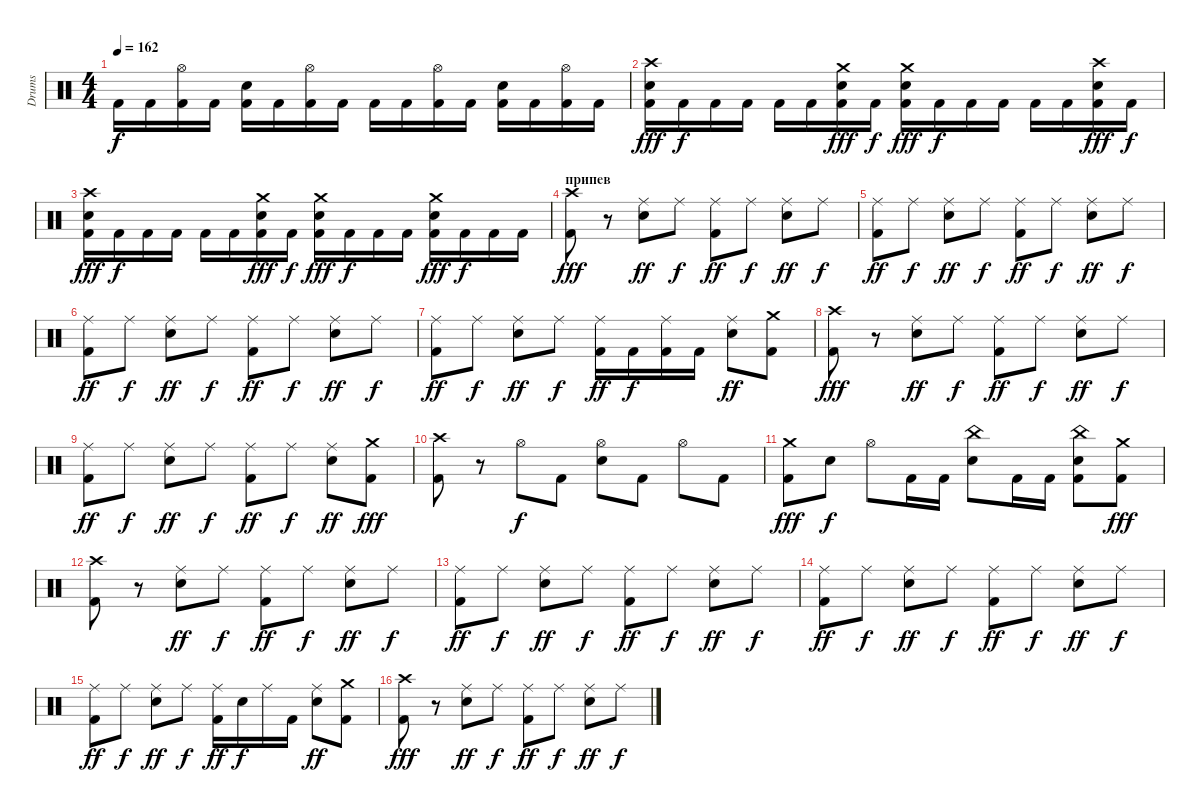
\track ("Drums" "Drums") {instrument percussion}
\staff {score}
\articulation defaults
\ts (4 4)
\tempo 162
\clef neutral
\ks c "Kick (hit) 2".16{dy f} "Kick (hit) 2".16
("Hi-Hat (open)" "Kick (hit) 2").16 "Kick (hit) 2".16 ("Snare (hit) 2" "Kick (hit) 2").16 "Kick (hit) 2".16 ("Hi-Hat (open)" "Kick (hit) 2").16 "Kick (hit) 2".16 "Kick (hit) 2".16 "Kick (hit) 2".16 ("Hi-Hat (open)" "Kick (hit) 2").16 "Kick (hit) 2".16 ("Snare (hit) 2" "Kick (hit) 2").16 "Kick (hit) 2".16 ("Hi-Hat (open)" "Kick (hit) 2").16 "Kick (hit) 2".16 |
("Crash high (hit)" "Snare (hit) 2" "Kick (hit) 2").16{dy fff} "Kick (hit) 2".16{dy f} "Kick (hit) 2".16 "Kick (hit) 2".16 "Kick (hit) 2".16 "Kick (hit) 2".16 ("Crash medium (hit)" "Snare (hit) 2" "Kick (hit) 2").16{dy fff} "Kick (hit) 2".16{dy f} ("Crash medium (hit)" "Snare (hit) 2" "Kick (hit) 2").16{dy fff} "Kick (hit) 2".16{dy f} "Kick (hit) 2".16 "Kick (hit) 2".16 "Kick (hit) 2".16 "Kick (hit) 2".16 ("Crash high (hit)" "Snare (hit) 2" "Kick (hit) 2").16{dy fff} "Kick (hit) 2".16{dy f} |
("Crash high (hit)" "Snare (hit) 2" "Kick (hit) 2").16{dy fff} "Kick (hit) 2".16{dy f} "Kick (hit) 2".16 "Kick (hit) 2".16 "Kick (hit) 2".16 "Kick (hit) 2".16 ("Crash medium (hit)" "Snare (hit) 2" "Kick (hit) 2").16{dy fff} "Kick (hit) 2".16{dy f} ("Crash medium (hit)" "Snare (hit) 2" "Kick (hit) 2").16{dy fff} "Kick (hit) 2".16{dy f} "Kick (hit) 2".16 "Kick (hit) 2".16 ("Crash medium (hit)" "Snare (hit) 2" "Kick (hit) 2").16{dy fff} "Kick (hit) 2".16{dy f} "Kick (hit) 2".16 "Kick (hit) 2".16 |
\section ("" "припев")
("Crash high (hit)" "Kick (hit) 2").8{dy fff} r.8 ("Ride (middle)" "Snare (hit) 2").8{dy ff} "Ride (middle)".8{dy f} ("Ride (middle)" "Kick (hit) 2").8{dy ff} "Ride (middle)".8{dy f} ("Ride (middle)" "Snare (hit) 2").8{dy ff} "Ride (middle)".8{dy f} |
("Ride (middle)" "Kick (hit) 2").8{dy ff} "Ride (middle)".8{dy f} ("Ride (middle)" "Snare (hit) 2").8{dy ff} "Ride (middle)".8{dy f} ("Ride (middle)" "Kick (hit) 2").8{dy ff} "Ride (middle)".8{dy f} ("Ride (middle)" "Snare (hit) 2").8{dy ff} "Ride (middle)".8{dy f} |
("Ride (middle)" "Kick (hit) 2").8{dy ff} "Ride (middle)".8{dy f} ("Ride (middle)" "Snare (hit) 2").8{dy ff} "Ride (middle)".8{dy f} ("Ride (middle)" "Kick (hit) 2").8{dy ff} "Ride (middle)".8{dy f} ("Ride (middle)" "Snare (hit) 2").8{dy ff} "Ride (middle)".8{dy f} |
("Ride (middle)" "Kick (hit) 2").8{dy ff} "Ride (middle)".8{dy f} ("Ride (middle)" "Snare (hit) 2").8{dy ff} "Ride (middle)".8{dy f} ("Ride (middle)" "Kick (hit) 2").16{dy ff} "Kick (hit) 2".16{dy f} ("Ride (middle)" "Kick (hit) 2").16 "Kick (hit) 2".16 ("Ride (middle)" "Snare (hit) 2").8{dy ff} ("Crash medium (hit)" "Kick (hit) 2").8 |
("Crash high (hit)" "Kick (hit) 2").8{dy fff} r.8 ("Ride (middle)" "Snare (hit) 2").8{dy ff} "Ride (middle)".8{dy f} ("Ride (middle)" "Kick (hit) 2").8{dy ff} "Ride (middle)".8{dy f} ("Ride (middle)" "Snare (hit) 2").8{dy ff} "Ride (middle)".8{dy f} |
("Ride (middle)" "Kick (hit) 2").8{dy ff} "Ride (middle)".8{dy f} ("Ride (middle)" "Snare (hit) 2").8{dy ff} "Ride (middle)".8{dy f} ("Ride (middle)" "Kick (hit) 2").8{dy ff} "Ride (middle)".8{dy f} ("Ride (middle)" "Snare (hit) 2").8{dy ff} ("Crash medium (hit)" "Kick (hit) 2").8{dy fff} |
("Crash high (hit)" "Kick (hit) 2").8 r.8 "Hi-Hat (open)".8{dy f} "Kick (hit) 2".8 ("Hi-Hat (open)" "Snare (hit) 2").8 "Kick (hit) 2".8 "Hi-Hat (open)".8 "Kick (hit) 2".8 |
("Crash medium (hit)" "Kick (hit) 2").8{dy fff} "Snare (hit) 2".8{dy f} "Hi-Hat (open)".8 "Kick (hit) 2".16 "Kick (hit) 2".16 ("China (hit)" "Snare (hit) 2").8 "Kick (hit) 2".16 "Kick (hit) 2".16 ("China (hit)" "Snare (hit) 2" "Kick (hit) 2").8 ("Crash medium (hit)" "Kick (hit) 2").8{dy fff} |
("Crash high (hit)" "Kick (hit) 2").8 r.8 ("Ride (middle)" "Snare (hit) 2").8{dy ff} "Ride (middle)".8{dy f} ("Ride (middle)" "Kick (hit) 2").8{dy ff} "Ride (middle)".8{dy f} ("Ride (middle)" "Snare (hit) 2").8{dy ff} "Ride (middle)".8{dy f} |
("Ride (middle)" "Kick (hit) 2").8{dy ff} "Ride (middle)".8{dy f} ("Ride (middle)" "Snare (hit) 2").8{dy ff} "Ride (middle)".8{dy f} ("Ride (middle)" "Kick (hit) 2").8{dy ff} "Ride (middle)".8{dy f} ("Ride (middle)" "Snare (hit) 2").8{dy ff} "Ride (middle)".8{dy f} |
("Ride (middle)" "Kick (hit) 2").8{dy ff} "Ride (middle)".8{dy f} ("Ride (middle)" "Snare (hit) 2").8{dy ff} "Ride (middle)".8{dy f} ("Ride (middle)" "Kick (hit) 2").8{dy ff} "Ride (middle)".8{dy f} ("Ride (middle)" "Snare (hit) 2").8{dy ff} "Ride (middle)".8{dy f} |
("Ride (middle)" "Kick (hit) 2").8{dy ff} "Ride (middle)".8{dy f} ("Ride (middle)" "Snare (hit) 2").8{dy ff} "Ride (middle)".8{dy f} ("Ride (middle)" "Kick (hit) 2").16{dy ff} "Snare (hit) 2".16{dy f} "Ride (middle)".16 "Kick (hit) 2".16 ("Ride (middle)" "Snare (hit) 2").8{dy ff} ("Crash medium (hit)" "Kick (hit) 2").8 |
("Crash high (hit)" "Kick (hit) 2").8{dy fff} r.8 ("Ride (middle)" "Snare (hit) 2").8{dy ff} "Ride (middle)".8{dy f} ("Ride (middle)" "Kick (hit) 2").8{dy ff} "Ride (middle)".8{dy f} ("Ride (middle)" "Snare (hit) 2").8{dy ff} "Ride (middle)".8{dy f}
